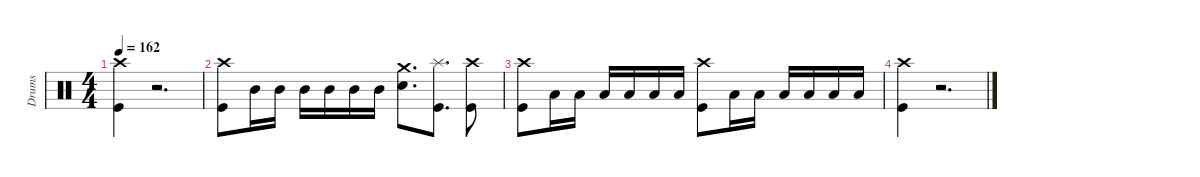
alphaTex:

\defaultSystemsLayout 4
\hideDynamics
\bracketExtendMode nobrackets
\track ("Drums - Nick Menza" "Drums") {instrument percussion}
\staff {score}
\articulation defaults
\ts (4 4)
\tempo 162
\clef neutral
\ks c
("Kick (hit)" "Crash high (hit)").4{dy mf} r.2{d} |
("Kick (hit)" "Crash high (hit)").8 "Mid Tom (hit)".16 "Mid Tom (hit)".16 "Mid Tom (hit)".16 "Mid Tom (hit)".16 "Mid Tom (hit)".16 "Mid Tom (hit)".16 ("Crash medium (hit)" "Snare (hit) 2").8{d} ("Kick (hit)" "Splash (hit)").8{d} ("Kick (hit)" "Crash high (hit)").8 |
("Kick (hit)" "Crash high (hit)").8 "Low Tom (hit)".16 "Low Tom (hit)".16 "Low Tom (hit)".16 "Low Tom (hit)".16 "Low Tom (hit)".16 "Low Tom (hit)".16 ("Kick (hit)" "Crash high (hit)").8 "Low Tom (hit)".16 "Low Tom (hit)".16 "Low Tom (hit)".16 "Low Tom (hit)".16 "Low Tom (hit)".16 "Low Tom (hit)".16 |
("Kick (hit)" "Crash high (hit)").4 r.2{d}
